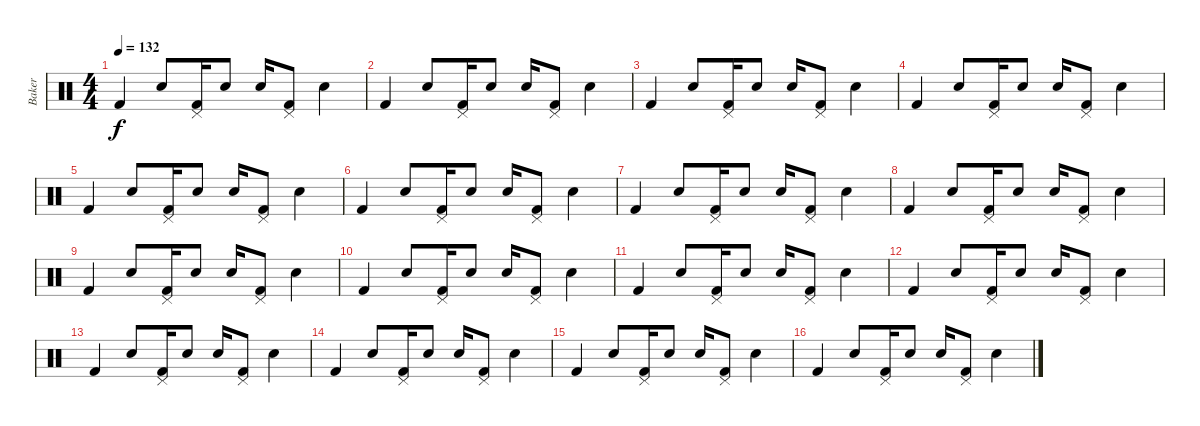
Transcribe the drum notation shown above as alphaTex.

\track ("Baker" "Baker") {instrument percussion}
\staff {score}
\articulation defaults
\ts (4 4)
\tempo 132
\clef neutral
\ks c "Kick (hit) 2".4{dy f} "Snare (hit) 2".8
("Pedal Hi-Hat (hit)" "Kick (hit) 2").16 "Snare (hit) 2".8 "Snare (hit) 2".16 ("Pedal Hi-Hat (hit)" "Kick (hit) 2").8 "Snare (hit) 2".4 |
"Kick (hit) 2".4 "Snare (hit) 2".8 ("Pedal Hi-Hat (hit)" "Kick (hit) 2").16 "Snare (hit) 2".8 "Snare (hit) 2".16 ("Pedal Hi-Hat (hit)" "Kick (hit) 2").8 "Snare (hit) 2".4 |
"Kick (hit) 2".4 "Snare (hit) 2".8 ("Pedal Hi-Hat (hit)" "Kick (hit) 2").16 "Snare (hit) 2".8 "Snare (hit) 2".16 ("Pedal Hi-Hat (hit)" "Kick (hit) 2").8 "Snare (hit) 2".4 |
"Kick (hit) 2".4 "Snare (hit) 2".8 ("Pedal Hi-Hat (hit)" "Kick (hit) 2").16 "Snare (hit) 2".8 "Snare (hit) 2".16 ("Pedal Hi-Hat (hit)" "Kick (hit) 2").8 "Snare (hit) 2".4 |
"Kick (hit) 2".4 "Snare (hit) 2".8 ("Pedal Hi-Hat (hit)" "Kick (hit) 2").16 "Snare (hit) 2".8 "Snare (hit) 2".16 ("Pedal Hi-Hat (hit)" "Kick (hit) 2").8 "Snare (hit) 2".4 |
"Kick (hit) 2".4 "Snare (hit) 2".8 ("Pedal Hi-Hat (hit)" "Kick (hit) 2").16 "Snare (hit) 2".8 "Snare (hit) 2".16 ("Pedal Hi-Hat (hit)" "Kick (hit) 2").8 "Snare (hit) 2".4 |
"Kick (hit) 2".4 "Snare (hit) 2".8 ("Pedal Hi-Hat (hit)" "Kick (hit) 2").16 "Snare (hit) 2".8 "Snare (hit) 2".16 ("Pedal Hi-Hat (hit)" "Kick (hit) 2").8 "Snare (hit) 2".4 |
"Kick (hit) 2".4 "Snare (hit) 2".8 ("Pedal Hi-Hat (hit)" "Kick (hit) 2").16 "Snare (hit) 2".8 "Snare (hit) 2".16 ("Pedal Hi-Hat (hit)" "Kick (hit) 2").8 "Snare (hit) 2".4 |
"Kick (hit) 2".4 "Snare (hit) 2".8 ("Pedal Hi-Hat (hit)" "Kick (hit) 2").16 "Snare (hit) 2".8 "Snare (hit) 2".16 ("Pedal Hi-Hat (hit)" "Kick (hit) 2").8 "Snare (hit) 2".4 |
"Kick (hit) 2".4 "Snare (hit) 2".8 ("Pedal Hi-Hat (hit)" "Kick (hit) 2").16 "Snare (hit) 2".8 "Snare (hit) 2".16 ("Pedal Hi-Hat (hit)" "Kick (hit) 2").8 "Snare (hit) 2".4 |
"Kick (hit) 2".4 "Snare (hit) 2".8 ("Pedal Hi-Hat (hit)" "Kick (hit) 2").16 "Snare (hit) 2".8 "Snare (hit) 2".16 ("Pedal Hi-Hat (hit)" "Kick (hit) 2").8 "Snare (hit) 2".4 |
"Kick (hit) 2".4 "Snare (hit) 2".8 ("Pedal Hi-Hat (hit)" "Kick (hit) 2").16 "Snare (hit) 2".8 "Snare (hit) 2".16 ("Pedal Hi-Hat (hit)" "Kick (hit) 2").8 "Snare (hit) 2".4 |
"Kick (hit) 2".4 "Snare (hit) 2".8 ("Pedal Hi-Hat (hit)" "Kick (hit) 2").16 "Snare (hit) 2".8 "Snare (hit) 2".16 ("Pedal Hi-Hat (hit)" "Kick (hit) 2").8 "Snare (hit) 2".4 |
"Kick (hit) 2".4 "Snare (hit) 2".8 ("Pedal Hi-Hat (hit)" "Kick (hit) 2").16 "Snare (hit) 2".8 "Snare (hit) 2".16 ("Pedal Hi-Hat (hit)" "Kick (hit) 2").8 "Snare (hit) 2".4 |
"Kick (hit) 2".4 "Snare (hit) 2".8 ("Pedal Hi-Hat (hit)" "Kick (hit) 2").16 "Snare (hit) 2".8 "Snare (hit) 2".16 ("Pedal Hi-Hat (hit)" "Kick (hit) 2").8 "Snare (hit) 2".4 |
"Kick (hit) 2".4 "Snare (hit) 2".8 ("Pedal Hi-Hat (hit)" "Kick (hit) 2").16 "Snare (hit) 2".8 "Snare (hit) 2".16 ("Pedal Hi-Hat (hit)" "Kick (hit) 2").8 "Snare (hit) 2".4
